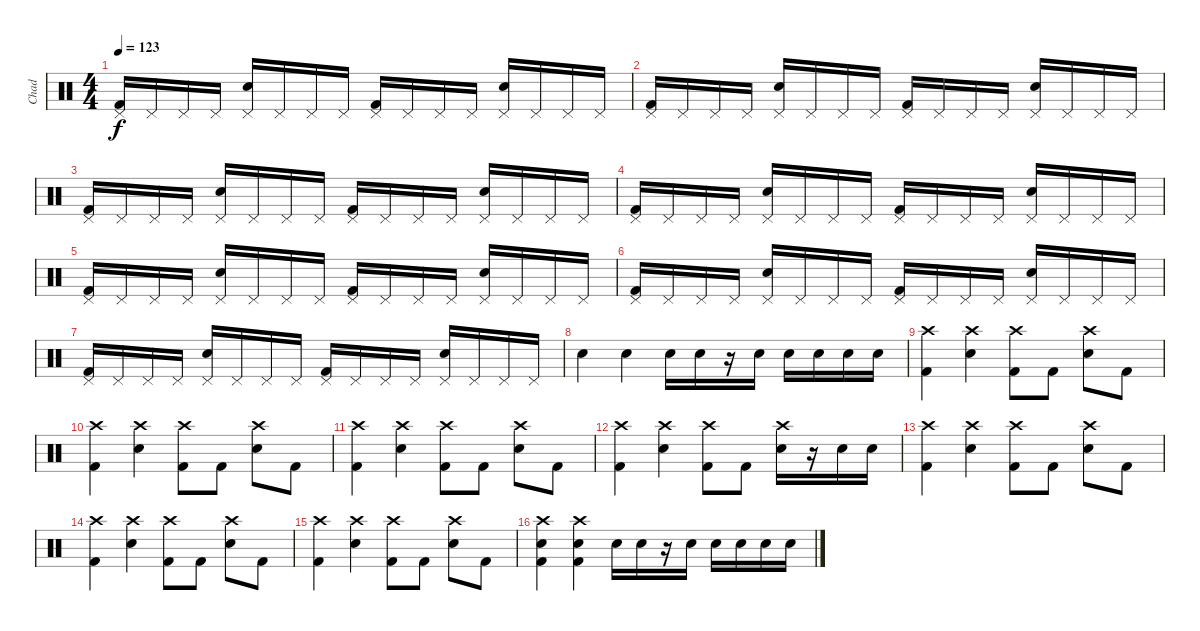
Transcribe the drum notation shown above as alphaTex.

\track ("Chad" "Chad") {instrument percussion}
\staff {score}
\articulation defaults
\ts (4 4)
\tempo 123
\clef neutral
\ks c
("Pedal Hi-Hat (hit)" "Kick (hit) 2").16{dy f} "Pedal Hi-Hat (hit)".16 "Pedal Hi-Hat (hit)".16 "Pedal Hi-Hat (hit)".16 ("Pedal Hi-Hat (hit)" "Electric Snare (hit)").16 "Pedal Hi-Hat (hit)".16 "Pedal Hi-Hat (hit)".16 "Pedal Hi-Hat (hit)".16 ("Pedal Hi-Hat (hit)" "Kick (hit) 2").16 "Pedal Hi-Hat (hit)".16 "Pedal Hi-Hat (hit)".16 "Pedal Hi-Hat (hit)".16 ("Pedal Hi-Hat (hit)" "Electric Snare (hit)").16 "Pedal Hi-Hat (hit)".16 "Pedal Hi-Hat (hit)".16 "Pedal Hi-Hat (hit)".16 |
("Pedal Hi-Hat (hit)" "Kick (hit) 2").16 "Pedal Hi-Hat (hit)".16 "Pedal Hi-Hat (hit)".16 "Pedal Hi-Hat (hit)".16 ("Pedal Hi-Hat (hit)" "Electric Snare (hit)").16 "Pedal Hi-Hat (hit)".16 "Pedal Hi-Hat (hit)".16 "Pedal Hi-Hat (hit)".16 ("Pedal Hi-Hat (hit)" "Kick (hit) 2").16 "Pedal Hi-Hat (hit)".16 "Pedal Hi-Hat (hit)".16 "Pedal Hi-Hat (hit)".16 ("Pedal Hi-Hat (hit)" "Electric Snare (hit)").16 "Pedal Hi-Hat (hit)".16 "Pedal Hi-Hat (hit)".16 "Pedal Hi-Hat (hit)".16 |
("Pedal Hi-Hat (hit)" "Kick (hit) 2").16 "Pedal Hi-Hat (hit)".16 "Pedal Hi-Hat (hit)".16 "Pedal Hi-Hat (hit)".16 ("Pedal Hi-Hat (hit)" "Electric Snare (hit)").16 "Pedal Hi-Hat (hit)".16 "Pedal Hi-Hat (hit)".16 "Pedal Hi-Hat (hit)".16 ("Pedal Hi-Hat (hit)" "Kick (hit) 2").16 "Pedal Hi-Hat (hit)".16 "Pedal Hi-Hat (hit)".16 "Pedal Hi-Hat (hit)".16 ("Pedal Hi-Hat (hit)" "Electric Snare (hit)").16 "Pedal Hi-Hat (hit)".16 "Pedal Hi-Hat (hit)".16 "Pedal Hi-Hat (hit)".16 |
("Pedal Hi-Hat (hit)" "Kick (hit) 2").16 "Pedal Hi-Hat (hit)".16 "Pedal Hi-Hat (hit)".16 "Pedal Hi-Hat (hit)".16 ("Pedal Hi-Hat (hit)" "Electric Snare (hit)").16 "Pedal Hi-Hat (hit)".16 "Pedal Hi-Hat (hit)".16 "Pedal Hi-Hat (hit)".16 ("Pedal Hi-Hat (hit)" "Kick (hit) 2").16 "Pedal Hi-Hat (hit)".16 "Pedal Hi-Hat (hit)".16 "Pedal Hi-Hat (hit)".16 ("Pedal Hi-Hat (hit)" "Electric Snare (hit)").16 "Pedal Hi-Hat (hit)".16 "Pedal Hi-Hat (hit)".16 "Pedal Hi-Hat (hit)".16 |
("Pedal Hi-Hat (hit)" "Kick (hit) 2").16 "Pedal Hi-Hat (hit)".16 "Pedal Hi-Hat (hit)".16 "Pedal Hi-Hat (hit)".16 ("Pedal Hi-Hat (hit)" "Electric Snare (hit)").16 "Pedal Hi-Hat (hit)".16 "Pedal Hi-Hat (hit)".16 "Pedal Hi-Hat (hit)".16 ("Pedal Hi-Hat (hit)" "Kick (hit) 2").16 "Pedal Hi-Hat (hit)".16 "Pedal Hi-Hat (hit)".16 "Pedal Hi-Hat (hit)".16 ("Pedal Hi-Hat (hit)" "Electric Snare (hit)").16 "Pedal Hi-Hat (hit)".16 "Pedal Hi-Hat (hit)".16 "Pedal Hi-Hat (hit)".16 |
("Pedal Hi-Hat (hit)" "Kick (hit) 2").16 "Pedal Hi-Hat (hit)".16 "Pedal Hi-Hat (hit)".16 "Pedal Hi-Hat (hit)".16 ("Pedal Hi-Hat (hit)" "Electric Snare (hit)").16 "Pedal Hi-Hat (hit)".16 "Pedal Hi-Hat (hit)".16 "Pedal Hi-Hat (hit)".16 ("Pedal Hi-Hat (hit)" "Kick (hit) 2").16 "Pedal Hi-Hat (hit)".16 "Pedal Hi-Hat (hit)".16 "Pedal Hi-Hat (hit)".16 ("Pedal Hi-Hat (hit)" "Electric Snare (hit)").16 "Pedal Hi-Hat (hit)".16 "Pedal Hi-Hat (hit)".16 "Pedal Hi-Hat (hit)".16 |
("Pedal Hi-Hat (hit)" "Kick (hit) 2").16 "Pedal Hi-Hat (hit)".16 "Pedal Hi-Hat (hit)".16 "Pedal Hi-Hat (hit)".16 ("Pedal Hi-Hat (hit)" "Electric Snare (hit)").16 "Pedal Hi-Hat (hit)".16 "Pedal Hi-Hat (hit)".16 "Pedal Hi-Hat (hit)".16 ("Pedal Hi-Hat (hit)" "Kick (hit) 2").16 "Pedal Hi-Hat (hit)".16 "Pedal Hi-Hat (hit)".16 "Pedal Hi-Hat (hit)".16 ("Pedal Hi-Hat (hit)" "Electric Snare (hit)").16 "Pedal Hi-Hat (hit)".16 "Pedal Hi-Hat (hit)".16 "Pedal Hi-Hat (hit)".16 |
"Electric Snare (hit)".4 "Electric Snare (hit)".4 "Electric Snare (hit)".16 "Electric Snare (hit)".16 r.16 "Electric Snare (hit)".16 "Electric Snare (hit)".16 "Electric Snare (hit)".16 "Electric Snare (hit)".16 "Electric Snare (hit)".16 |
("Crash high (hit)" "Kick (hit) 2").4 ("Crash high (hit)" "Electric Snare (hit)").4 ("Crash high (hit)" "Kick (hit) 2").8 "Kick (hit) 2".8 ("Crash high (hit)" "Electric Snare (hit)").8 "Kick (hit) 2".8 |
("Crash high (hit)" "Kick (hit) 2").4 ("Crash high (hit)" "Electric Snare (hit)").4 ("Crash high (hit)" "Kick (hit) 2").8 "Kick (hit) 2".8 ("Crash high (hit)" "Electric Snare (hit)").8 "Kick (hit) 2".8 |
("Crash high (hit)" "Kick (hit) 2").4 ("Crash high (hit)" "Electric Snare (hit)").4 ("Crash high (hit)" "Kick (hit) 2").8 "Kick (hit) 2".8 ("Crash high (hit)" "Electric Snare (hit)").8 "Kick (hit) 2".8 |
("Crash high (hit)" "Kick (hit) 2").4 ("Crash high (hit)" "Electric Snare (hit)").4 ("Crash high (hit)" "Kick (hit) 2").8 "Kick (hit) 2".8 ("Crash high (hit)" "Electric Snare (hit)").16 r.16 "Electric Snare (hit)".16 "Electric Snare (hit)".16 |
("Crash high (hit)" "Kick (hit) 2").4 ("Crash high (hit)" "Electric Snare (hit)").4 ("Crash high (hit)" "Kick (hit) 2").8 "Kick (hit) 2".8 ("Crash high (hit)" "Electric Snare (hit)").8 "Kick (hit) 2".8 |
("Crash high (hit)" "Kick (hit) 2").4 ("Crash high (hit)" "Electric Snare (hit)").4 ("Crash high (hit)" "Kick (hit) 2").8 "Kick (hit) 2".8 ("Crash high (hit)" "Electric Snare (hit)").8 "Kick (hit) 2".8 |
("Crash high (hit)" "Kick (hit) 2").4 ("Crash high (hit)" "Electric Snare (hit)").4 ("Crash high (hit)" "Kick (hit) 2").8 "Kick (hit) 2".8 ("Crash high (hit)" "Electric Snare (hit)").8 "Kick (hit) 2".8 |
("Crash high (hit)" "Electric Snare (hit)" "Kick (hit) 2").4 ("Crash high (hit)" "Electric Snare (hit)" "Kick (hit) 2").4 "Electric Snare (hit)".16 "Electric Snare (hit)".16 r.16 "Electric Snare (hit)".16 "Electric Snare (hit)".16 "Electric Snare (hit)".16 "Electric Snare (hit)".16 "Electric Snare (hit)".16
